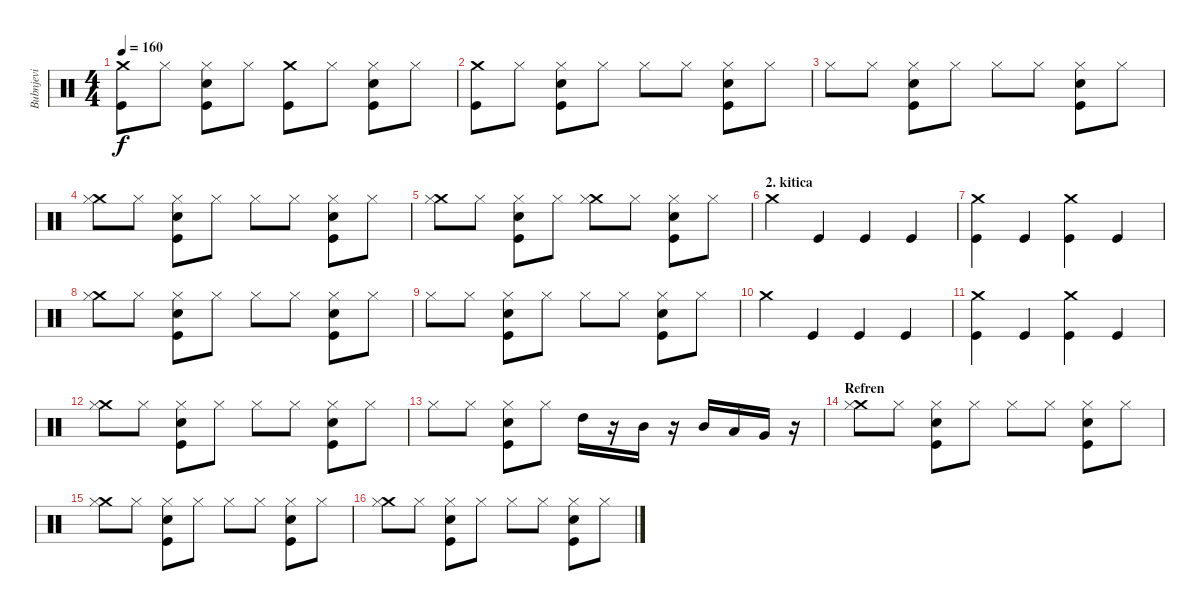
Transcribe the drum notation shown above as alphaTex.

\track ("Bubnjevi" "Bubnjevi") {instrument percussion}
\staff {score}
\articulation defaults
\ts (4 4)
\tempo 160
\clef neutral
\ks c
("Crash medium (hit)" "Kick (hit)").8{dy f} "Hi-Hat (closed)".8 ("Snare (hit) 2" "Hi-Hat (closed)" "Kick (hit)").8 "Hi-Hat (closed)".8 ("Crash medium (hit)" "Kick (hit)").8 "Hi-Hat (closed)".8 ("Snare (hit) 2" "Hi-Hat (closed)" "Kick (hit)").8 "Hi-Hat (closed)".8 |
("Crash medium (hit)" "Kick (hit)").8 "Hi-Hat (closed)".8 ("Snare (hit) 2" "Hi-Hat (closed)" "Kick (hit)").8 "Hi-Hat (closed)".8 "Hi-Hat (closed)".8 "Hi-Hat (closed)".8 ("Snare (hit) 2" "Hi-Hat (closed)" "Kick (hit)").8 "Hi-Hat (closed)".8 |
"Hi-Hat (closed)".8 "Hi-Hat (closed)".8 ("Snare (hit) 2" "Hi-Hat (closed)" "Kick (hit)").8 "Hi-Hat (closed)".8 "Hi-Hat (closed)".8 "Hi-Hat (closed)".8 ("Snare (hit) 2" "Hi-Hat (closed)" "Kick (hit)").8 "Hi-Hat (closed)".8 |
("Crash medium (hit)" "Hi-Hat (closed)").8 "Hi-Hat (closed)".8 ("Snare (hit) 2" "Hi-Hat (closed)" "Kick (hit)").8 "Hi-Hat (closed)".8 "Hi-Hat (closed)".8 "Hi-Hat (closed)".8 ("Snare (hit) 2" "Hi-Hat (closed)" "Kick (hit)").8 "Hi-Hat (closed)".8 |
("Crash medium (hit)" "Hi-Hat (closed)").8 "Hi-Hat (closed)".8 ("Snare (hit) 2" "Hi-Hat (closed)" "Kick (hit)").8 "Hi-Hat (closed)".8 ("Crash medium (hit)" "Hi-Hat (closed)").8 "Hi-Hat (closed)".8 ("Snare (hit) 2" "Hi-Hat (closed)" "Kick (hit)").8 "Hi-Hat (closed)".8 |
\section ("" "2. kitica")
"Crash medium (hit)".4 "Kick (hit)".4 "Kick (hit)".4 "Kick (hit)".4 |
("Crash medium (hit)" "Kick (hit)").4 "Kick (hit)".4 ("Crash medium (hit)" "Kick (hit)").4 "Kick (hit)".4 |
("Crash medium (hit)" "Hi-Hat (closed)").8 "Hi-Hat (closed)".8 ("Snare (hit) 2" "Hi-Hat (closed)" "Kick (hit)").8 "Hi-Hat (closed)".8 "Hi-Hat (closed)".8 "Hi-Hat (closed)".8 ("Snare (hit) 2" "Hi-Hat (closed)" "Kick (hit)").8 "Hi-Hat (closed)".8 |
"Hi-Hat (closed)".8 "Hi-Hat (closed)".8 ("Snare (hit) 2" "Hi-Hat (closed)" "Kick (hit)").8 "Hi-Hat (closed)".8 "Hi-Hat (closed)".8 "Hi-Hat (closed)".8 ("Snare (hit) 2" "Hi-Hat (closed)" "Kick (hit)").8 "Hi-Hat (closed)".8 |
"Crash medium (hit)".4 "Kick (hit)".4 "Kick (hit)".4 "Kick (hit)".4 |
("Crash medium (hit)" "Kick (hit)").4 "Kick (hit)".4 ("Crash medium (hit)" "Kick (hit)").4 "Kick (hit)".4 |
("Crash medium (hit)" "Hi-Hat (closed)").8 "Hi-Hat (closed)".8 ("Snare (hit) 2" "Hi-Hat (closed)" "Kick (hit)").8 "Hi-Hat (closed)".8 "Hi-Hat (closed)".8 "Hi-Hat (closed)".8 ("Snare (hit) 2" "Hi-Hat (closed)" "Kick (hit)").8 "Hi-Hat (closed)".8 |
"Hi-Hat (closed)".8 "Hi-Hat (closed)".8 ("Snare (hit) 2" "Hi-Hat (closed)" "Kick (hit)").8 "Hi-Hat (closed)".8 "High Tom (hit)".16 r.16 "Mid Tom (hit)".16 r.16 "Mid Tom (hit)".16 "Low Tom (hit)".16 "Very Low Tom (hit)".16 r.16 |
\section ("" "Refren")
("Crash medium (hit)" "Hi-Hat (closed)").8 "Hi-Hat (closed)".8 ("Snare (hit) 2" "Hi-Hat (closed)" "Kick (hit)").8 "Hi-Hat (closed)".8 "Hi-Hat (closed)".8 "Hi-Hat (closed)".8 ("Snare (hit) 2" "Hi-Hat (closed)" "Kick (hit)").8 "Hi-Hat (closed)".8 |
("Crash medium (hit)" "Hi-Hat (closed)").8 "Hi-Hat (closed)".8 ("Snare (hit) 2" "Hi-Hat (closed)" "Kick (hit)").8 "Hi-Hat (closed)".8 "Hi-Hat (closed)".8 "Hi-Hat (closed)".8 ("Snare (hit) 2" "Hi-Hat (closed)" "Kick (hit)").8 "Hi-Hat (closed)".8 |
("Crash medium (hit)" "Hi-Hat (closed)").8 "Hi-Hat (closed)".8 ("Snare (hit) 2" "Hi-Hat (closed)" "Kick (hit)").8 "Hi-Hat (closed)".8 "Hi-Hat (closed)".8 "Hi-Hat (closed)".8 ("Snare (hit) 2" "Hi-Hat (closed)" "Kick (hit)").8 "Hi-Hat (closed)".8
